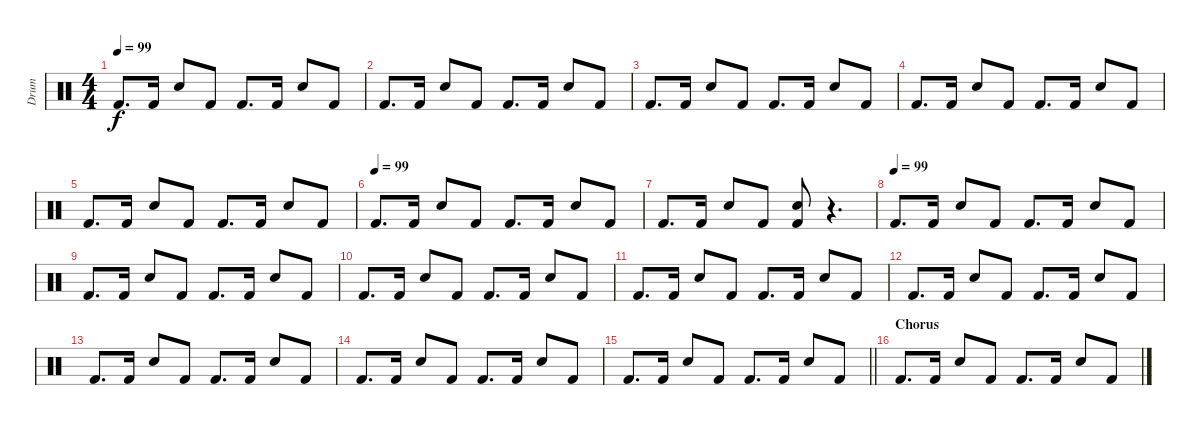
\track ("Drum" "Drum") {instrument percussion}
\staff {score}
\articulation defaults
\ts (4 4)
\tempo 99
\clef neutral
\ks c "Kick (hit) 2".8{d dy f} "Kick (hit) 2".16 "Electric Snare (hit)".8 "Kick (hit) 2".8 "Kick (hit) 2".8{d} "Kick (hit) 2".16 "Electric Snare (hit)".8 "Kick (hit) 2".8
|
"Kick (hit) 2".8{d} "Kick (hit) 2".16 "Electric Snare (hit)".8 "Kick (hit) 2".8 "Kick (hit) 2".8{d} "Kick (hit) 2".16 "Electric Snare (hit)".8 "Kick (hit) 2".8 |
"Kick (hit) 2".8{d} "Kick (hit) 2".16 "Electric Snare (hit)".8 "Kick (hit) 2".8 "Kick (hit) 2".8{d} "Kick (hit) 2".16 "Electric Snare (hit)".8 "Kick (hit) 2".8 |
"Kick (hit) 2".8{d} "Kick (hit) 2".16 "Electric Snare (hit)".8 "Kick (hit) 2".8 "Kick (hit) 2".8{d} "Kick (hit) 2".16 "Electric Snare (hit)".8 "Kick (hit) 2".8 |
"Kick (hit) 2".8{d} "Kick (hit) 2".16 "Electric Snare (hit)".8 "Kick (hit) 2".8 "Kick (hit) 2".8{d} "Kick (hit) 2".16 "Electric Snare (hit)".8 "Kick (hit) 2".8 |
\tempo (99)
"Kick (hit) 2".8{d} "Kick (hit) 2".16 "Electric Snare (hit)".8 "Kick (hit) 2".8 "Kick (hit) 2".8{d} "Kick (hit) 2".16 "Electric Snare (hit)".8 "Kick (hit) 2".8 |
"Kick (hit) 2".8{d} "Kick (hit) 2".16 "Electric Snare (hit)".8 "Kick (hit) 2".8 ("Kick (hit) 2" "Electric Snare (hit)").8 r.4{d} |
\tempo (99)
"Kick (hit) 2".8{d} "Kick (hit) 2".16 "Electric Snare (hit)".8 "Kick (hit) 2".8 "Kick (hit) 2".8{d} "Kick (hit) 2".16 "Electric Snare (hit)".8 "Kick (hit) 2".8 |
"Kick (hit) 2".8{d} "Kick (hit) 2".16 "Electric Snare (hit)".8 "Kick (hit) 2".8 "Kick (hit) 2".8{d} "Kick (hit) 2".16 "Electric Snare (hit)".8 "Kick (hit) 2".8 |
"Kick (hit) 2".8{d} "Kick (hit) 2".16 "Electric Snare (hit)".8 "Kick (hit) 2".8 "Kick (hit) 2".8{d} "Kick (hit) 2".16 "Electric Snare (hit)".8 "Kick (hit) 2".8 |
"Kick (hit) 2".8{d} "Kick (hit) 2".16 "Electric Snare (hit)".8 "Kick (hit) 2".8 "Kick (hit) 2".8{d} "Kick (hit) 2".16 "Electric Snare (hit)".8 "Kick (hit) 2".8 |
"Kick (hit) 2".8{d} "Kick (hit) 2".16 "Electric Snare (hit)".8 "Kick (hit) 2".8 "Kick (hit) 2".8{d} "Kick (hit) 2".16 "Electric Snare (hit)".8 "Kick (hit) 2".8 |
"Kick (hit) 2".8{d} "Kick (hit) 2".16 "Electric Snare (hit)".8 "Kick (hit) 2".8 "Kick (hit) 2".8{d} "Kick (hit) 2".16 "Electric Snare (hit)".8 "Kick (hit) 2".8 |
"Kick (hit) 2".8{d} "Kick (hit) 2".16 "Electric Snare (hit)".8 "Kick (hit) 2".8 "Kick (hit) 2".8{d} "Kick (hit) 2".16 "Electric Snare (hit)".8 "Kick (hit) 2".8 |
\barLineRight lightlight "Kick (hit) 2".8{d} "Kick (hit) 2".16 "Electric Snare (hit)".8 "Kick (hit) 2".8 "Kick (hit) 2".8{d} "Kick (hit) 2".16 "Electric Snare (hit)".8 "Kick (hit) 2".8
|
\section ("" "Chorus")
"Kick (hit) 2".8{d} "Kick (hit) 2".16 "Electric Snare (hit)".8 "Kick (hit) 2".8 "Kick (hit) 2".8{d} "Kick (hit) 2".16 "Electric Snare (hit)".8 "Kick (hit) 2".8
